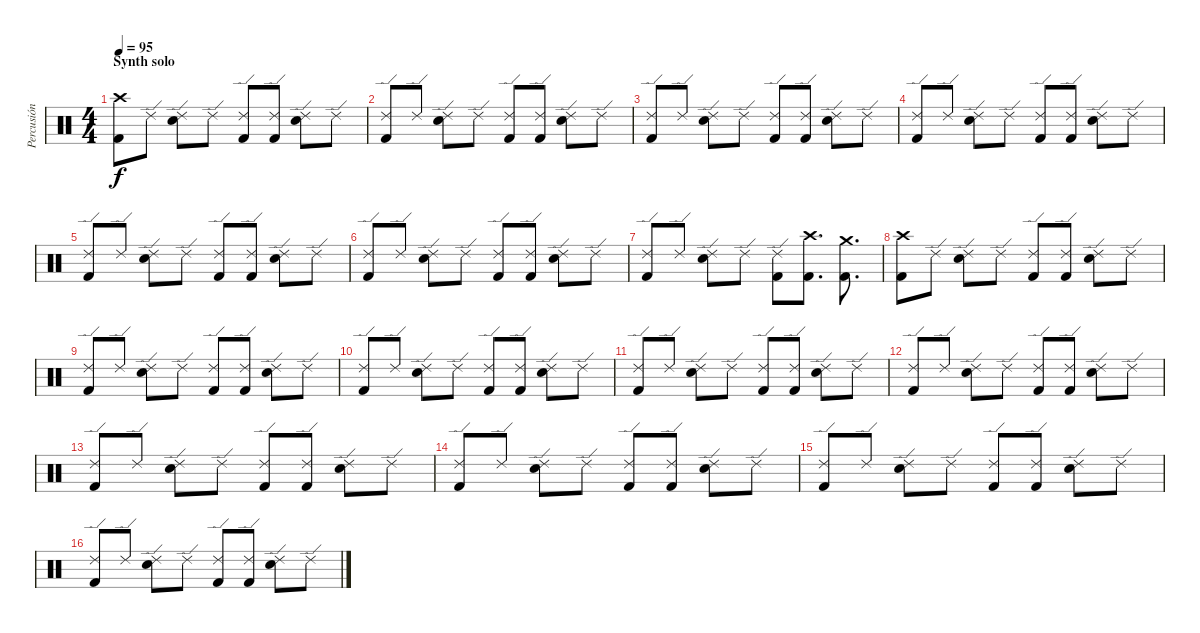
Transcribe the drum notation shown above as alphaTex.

\track ("Percusión" "Percusión") {instrument percussion}
\staff {score}
\articulation defaults
\ts (4 4)
\section ("" "Synth solo")
\tempo 95
\clef neutral
\ks c
("Crash high (hit)" "Kick (hit) 2").8{dy f} "Ride (edge) 2".8 ("Ride (edge) 2" "Electric Snare (hit)").8 "Ride (edge) 2".8 ("Ride (edge) 2" "Kick (hit) 2").8 ("Ride (edge) 2" "Kick (hit) 2").8 ("Ride (edge) 2" "Electric Snare (hit)").8 "Ride (edge) 2".8 |
("Ride (edge) 2" "Kick (hit) 2").8 "Ride (edge) 2".8 ("Ride (edge) 2" "Electric Snare (hit)").8 "Ride (edge) 2".8 ("Ride (edge) 2" "Kick (hit) 2").8 ("Ride (edge) 2" "Kick (hit) 2").8 ("Ride (edge) 2" "Electric Snare (hit)").8 "Ride (edge) 2".8 |
("Ride (edge) 2" "Kick (hit) 2").8 "Ride (edge) 2".8 ("Ride (edge) 2" "Electric Snare (hit)").8 "Ride (edge) 2".8 ("Ride (edge) 2" "Kick (hit) 2").8 ("Ride (edge) 2" "Kick (hit) 2").8 ("Ride (edge) 2" "Electric Snare (hit)").8 "Ride (edge) 2".8 |
("Ride (edge) 2" "Kick (hit) 2").8 "Ride (edge) 2".8 ("Ride (edge) 2" "Electric Snare (hit)").8 "Ride (edge) 2".8 ("Ride (edge) 2" "Kick (hit) 2").8 ("Ride (edge) 2" "Kick (hit) 2").8 ("Ride (edge) 2" "Electric Snare (hit)").8 "Ride (edge) 2".8 |
("Ride (edge) 2" "Kick (hit) 2").8 "Ride (edge) 2".8 ("Ride (edge) 2" "Electric Snare (hit)").8 "Ride (edge) 2".8 ("Ride (edge) 2" "Kick (hit) 2").8 ("Ride (edge) 2" "Kick (hit) 2").8 ("Ride (edge) 2" "Electric Snare (hit)").8 "Ride (edge) 2".8 |
("Ride (edge) 2" "Kick (hit) 2").8 "Ride (edge) 2".8 ("Ride (edge) 2" "Electric Snare (hit)").8 "Ride (edge) 2".8 ("Ride (edge) 2" "Kick (hit) 2").8 ("Ride (edge) 2" "Kick (hit) 2").8 ("Ride (edge) 2" "Electric Snare (hit)").8 "Ride (edge) 2".8 |
("Ride (edge) 2" "Kick (hit) 2").8 "Ride (edge) 2".8 ("Ride (edge) 2" "Electric Snare (hit)").8 "Ride (edge) 2".8 ("Ride (edge) 2" "Kick (hit) 2").8 ("Crash high (hit)" "Kick (hit) 2").8{d} ("Crash medium (hit)" "Kick (hit) 2").8{d} |
("Crash high (hit)" "Kick (hit) 2").8 "Ride (edge) 2".8 ("Ride (edge) 2" "Electric Snare (hit)").8 "Ride (edge) 2".8 ("Ride (edge) 2" "Kick (hit) 2").8 ("Ride (edge) 2" "Kick (hit) 2").8 ("Ride (edge) 2" "Electric Snare (hit)").8 "Ride (edge) 2".8 |
("Ride (edge) 2" "Kick (hit) 2").8 "Ride (edge) 2".8 ("Ride (edge) 2" "Electric Snare (hit)").8 "Ride (edge) 2".8 ("Ride (edge) 2" "Kick (hit) 2").8 ("Ride (edge) 2" "Kick (hit) 2").8 ("Ride (edge) 2" "Electric Snare (hit)").8 "Ride (edge) 2".8 |
("Ride (edge) 2" "Kick (hit) 2").8 "Ride (edge) 2".8 ("Ride (edge) 2" "Electric Snare (hit)").8 "Ride (edge) 2".8 ("Ride (edge) 2" "Kick (hit) 2").8 ("Ride (edge) 2" "Kick (hit) 2").8 ("Ride (edge) 2" "Electric Snare (hit)").8 "Ride (edge) 2".8 |
("Ride (edge) 2" "Kick (hit) 2").8 "Ride (edge) 2".8 ("Ride (edge) 2" "Electric Snare (hit)").8 "Ride (edge) 2".8 ("Ride (edge) 2" "Kick (hit) 2").8 ("Ride (edge) 2" "Kick (hit) 2").8 ("Ride (edge) 2" "Electric Snare (hit)").8 "Ride (edge) 2".8 |
("Ride (edge) 2" "Kick (hit) 2").8 "Ride (edge) 2".8 ("Ride (edge) 2" "Electric Snare (hit)").8 "Ride (edge) 2".8 ("Ride (edge) 2" "Kick (hit) 2").8 ("Ride (edge) 2" "Kick (hit) 2").8 ("Ride (edge) 2" "Electric Snare (hit)").8 "Ride (edge) 2".8 |
("Ride (edge) 2" "Kick (hit) 2").8 "Ride (edge) 2".8 ("Ride (edge) 2" "Electric Snare (hit)").8 "Ride (edge) 2".8 ("Ride (edge) 2" "Kick (hit) 2").8 ("Ride (edge) 2" "Kick (hit) 2").8 ("Ride (edge) 2" "Electric Snare (hit)").8 "Ride (edge) 2".8 |
("Ride (edge) 2" "Kick (hit) 2").8 "Ride (edge) 2".8 ("Ride (edge) 2" "Electric Snare (hit)").8 "Ride (edge) 2".8 ("Ride (edge) 2" "Kick (hit) 2").8 ("Ride (edge) 2" "Kick (hit) 2").8 ("Ride (edge) 2" "Electric Snare (hit)").8 "Ride (edge) 2".8 |
("Ride (edge) 2" "Kick (hit) 2").8 "Ride (edge) 2".8 ("Ride (edge) 2" "Electric Snare (hit)").8 "Ride (edge) 2".8 ("Ride (edge) 2" "Kick (hit) 2").8 ("Ride (edge) 2" "Kick (hit) 2").8 ("Ride (edge) 2" "Electric Snare (hit)").8 "Ride (edge) 2".8 |
("Ride (edge) 2" "Kick (hit) 2").8 "Ride (edge) 2".8 ("Ride (edge) 2" "Electric Snare (hit)").8 "Ride (edge) 2".8 ("Ride (edge) 2" "Kick (hit) 2").8 ("Ride (edge) 2" "Kick (hit) 2").8 ("Ride (edge) 2" "Electric Snare (hit)").8 "Ride (edge) 2".8
